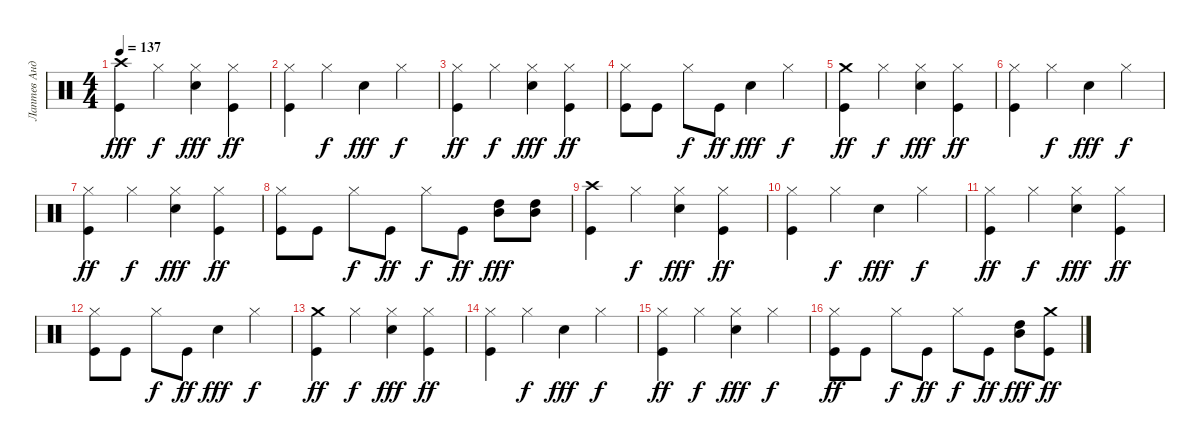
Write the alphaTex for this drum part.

\track ("Лаптев Андрей" "Лаптев Анд") {instrument percussion}
\staff {score}
\articulation defaults
\ts (4 4)
\tempo 137
\clef neutral
\ks c
("Kick (hit)" "Crash high (hit)").4{dy fff} "Hi-Hat (closed)".4{dy f} ("Electric Snare (hit)" "Hi-Hat (closed)").4{dy fff} ("Kick (hit)" "Hi-Hat (closed)").4{dy ff} |
("Kick (hit)" "Hi-Hat (closed)").4 "Hi-Hat (closed)".4{dy f} "Electric Snare (hit)".4{dy fff} "Hi-Hat (closed)".4{dy f} |
("Hi-Hat (closed)" "Kick (hit)").4{dy ff} "Hi-Hat (closed)".4{dy f} ("Electric Snare (hit)" "Hi-Hat (closed)").4{dy fff} ("Kick (hit)" "Hi-Hat (closed)").4{dy ff} |
("Kick (hit)" "Hi-Hat (closed)").8 "Kick (hit)".8 "Hi-Hat (closed)".8{dy f} "Kick (hit)".8{dy ff} "Electric Snare (hit)".4{dy fff} "Hi-Hat (closed)".4{dy f} |
("Crash medium (hit)" "Kick (hit)").4{dy ff} "Hi-Hat (closed)".4{dy f} ("Electric Snare (hit)" "Hi-Hat (closed)").4{dy fff} ("Kick (hit)" "Hi-Hat (closed)").4{dy ff} |
("Kick (hit)" "Hi-Hat (closed)").4 "Hi-Hat (closed)".4{dy f} "Electric Snare (hit)".4{dy fff} "Hi-Hat (closed)".4{dy f} |
("Kick (hit)" "Hi-Hat (closed)").4{dy ff} "Hi-Hat (closed)".4{dy f} ("Electric Snare (hit)" "Hi-Hat (closed)").4{dy fff} ("Kick (hit)" "Hi-Hat (closed)").4{dy ff} |
("Kick (hit)" "Hi-Hat (closed)").8 "Kick (hit)".8 "Hi-Hat (closed)".8{dy f} "Kick (hit)".8{dy ff} "Hi-Hat (closed)".8{dy f} "Kick (hit)".8{dy ff} ("High Tom (hit)" "Mid Tom (hit)").8{dy fff} ("Mid Tom (hit)" "High Tom (hit)").8 |
("Kick (hit)" "Crash high (hit)").4 "Hi-Hat (closed)".4{dy f} ("Electric Snare (hit)" "Hi-Hat (closed)").4{dy fff} ("Kick (hit)" "Hi-Hat (closed)").4{dy ff} |
("Kick (hit)" "Hi-Hat (closed)").4 "Hi-Hat (closed)".4{dy f} "Electric Snare (hit)".4{dy fff} "Hi-Hat (closed)".4{dy f} |
("Kick (hit)" "Hi-Hat (closed)").4{dy ff} "Hi-Hat (closed)".4{dy f} ("Electric Snare (hit)" "Hi-Hat (closed)").4{dy fff} ("Kick (hit)" "Hi-Hat (closed)").4{dy ff} |
("Kick (hit)" "Hi-Hat (closed)").8 "Kick (hit)".8 "Hi-Hat (closed)".8{dy f} "Kick (hit)".8{dy ff} "Electric Snare (hit)".4{dy fff} "Hi-Hat (closed)".4{dy f} |
("Crash medium (hit)" "Kick (hit)").4{dy ff} "Hi-Hat (closed)".4{dy f} ("Electric Snare (hit)" "Hi-Hat (closed)").4{dy fff} ("Kick (hit)" "Hi-Hat (closed)").4{dy ff} |
("Kick (hit)" "Hi-Hat (closed)").4 "Hi-Hat (closed)".4{dy f} "Electric Snare (hit)".4{dy fff} "Hi-Hat (closed)".4{dy f} |
("Kick (hit)" "Hi-Hat (closed)").4{dy ff} "Hi-Hat (closed)".4{dy f} ("Electric Snare (hit)" "Hi-Hat (closed)").4{dy fff} "Hi-Hat (closed)".4{dy f} |
("Kick (hit)" "Hi-Hat (closed)").8{dy ff} "Kick (hit)".8 "Hi-Hat (closed)".8{dy f} "Kick (hit)".8{dy ff} "Hi-Hat (closed)".8{dy f} "Kick (hit)".8{dy ff} ("Mid Tom (hit)" "High Tom (hit)").8{dy fff} ("Crash medium (hit)" "Kick (hit)").8{dy ff}
